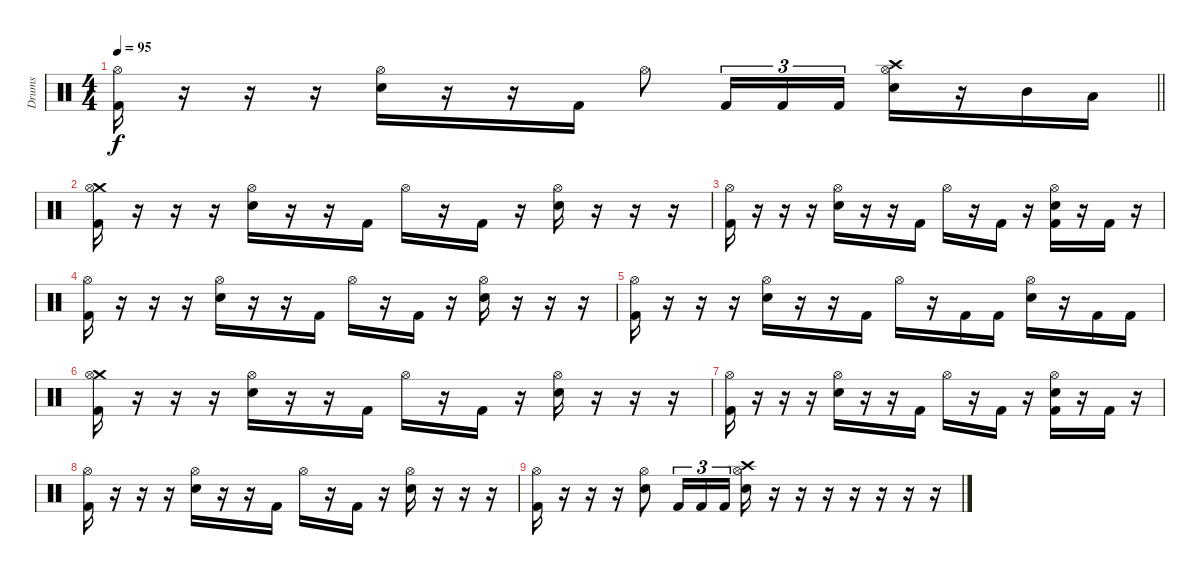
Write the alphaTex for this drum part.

\track ("Drums" "Drums") {instrument percussion}
\staff {score}
\articulation defaults
\ts (4 4)
\tempo 95
\clef neutral
\barLineRight lightlight
\ks c
("Hi-Hat (open)" "Kick (hit) 2").16{dy f} r.16 r.16 r.16 ("Hi-Hat (open)" "Electric Snare (hit)").16 r.16 r.16 "Kick (hit) 2".16 "Hi-Hat (open)".8 "Kick (hit) 2".16{tu (3 2)} "Kick (hit) 2".16{tu (3 2)} "Kick (hit) 2".16{tu (3 2)} ("Crash high (hit)" "Hi-Hat (open)" "Electric Snare (hit)").16 r.16 "Mid Tom (hit)".16 "Low Tom (hit)".16 |
\section ("" "")
("Crash medium (hit)" "Hi-Hat (open)" "Kick (hit) 2").16 r.16 r.16 r.16 ("Hi-Hat (open)" "Electric Snare (hit)").16 r.16 r.16 "Kick (hit) 2".16 "Hi-Hat (open)".16 r.16 "Kick (hit) 2".16 r.16 ("Hi-Hat (open)" "Electric Snare (hit)").16 r.16 r.16 r.16 |
("Hi-Hat (open)" "Kick (hit) 2").16 r.16 r.16 r.16 ("Hi-Hat (open)" "Electric Snare (hit)").16 r.16 r.16 "Kick (hit) 2".16 "Hi-Hat (open)".16 r.16 "Kick (hit) 2".16 r.16 ("Hi-Hat (open)" "Electric Snare (hit)" "Kick (hit) 2").16 r.16 "Kick (hit) 2".16 r.16 |
("Hi-Hat (open)" "Kick (hit) 2").16 r.16 r.16 r.16 ("Hi-Hat (open)" "Electric Snare (hit)").16 r.16 r.16 "Kick (hit) 2".16 "Hi-Hat (open)".16 r.16 "Kick (hit) 2".16 r.16 ("Hi-Hat (open)" "Electric Snare (hit)").16 r.16 r.16 r.16 |
("Hi-Hat (open)" "Kick (hit) 2").16 r.16 r.16 r.16 ("Hi-Hat (open)" "Electric Snare (hit)").16 r.16 r.16 "Kick (hit) 2".16 "Hi-Hat (open)".16 r.16 "Kick (hit) 2".16 "Kick (hit) 2".16 ("Hi-Hat (open)" "Electric Snare (hit)").16 r.16 "Kick (hit) 2".16 "Kick (hit) 2".16 |
("Crash medium (hit)" "Hi-Hat (open)" "Kick (hit) 2").16 r.16 r.16 r.16 ("Hi-Hat (open)" "Electric Snare (hit)").16 r.16 r.16 "Kick (hit) 2".16 "Hi-Hat (open)".16 r.16 "Kick (hit) 2".16 r.16 ("Hi-Hat (open)" "Electric Snare (hit)").16 r.16 r.16 r.16 |
("Hi-Hat (open)" "Kick (hit) 2").16 r.16 r.16 r.16 ("Hi-Hat (open)" "Electric Snare (hit)").16 r.16 r.16 "Kick (hit) 2".16 "Hi-Hat (open)".16 r.16 "Kick (hit) 2".16 r.16 ("Hi-Hat (open)" "Electric Snare (hit)" "Kick (hit) 2").16 r.16 "Kick (hit) 2".16 r.16 |
("Hi-Hat (open)" "Kick (hit) 2").16 r.16 r.16 r.16 ("Hi-Hat (open)" "Electric Snare (hit)").16 r.16 r.16 "Kick (hit) 2".16 "Hi-Hat (open)".16 r.16 "Kick (hit) 2".16 r.16 ("Hi-Hat (open)" "Electric Snare (hit)").16 r.16 r.16 r.16 |
("Hi-Hat (open)" "Kick (hit) 2").16 r.16 r.16 r.16 ("Hi-Hat (open)" "Electric Snare (hit)").8 "Kick (hit) 2".16{tu (3 2)} "Kick (hit) 2".16{tu (3 2)} "Kick (hit) 2".16{tu (3 2)} ("Crash high (hit)" "Hi-Hat (open)" "Electric Snare (hit)").16 r.16 r.16 r.16 r.16 r.16 r.16 r.16
